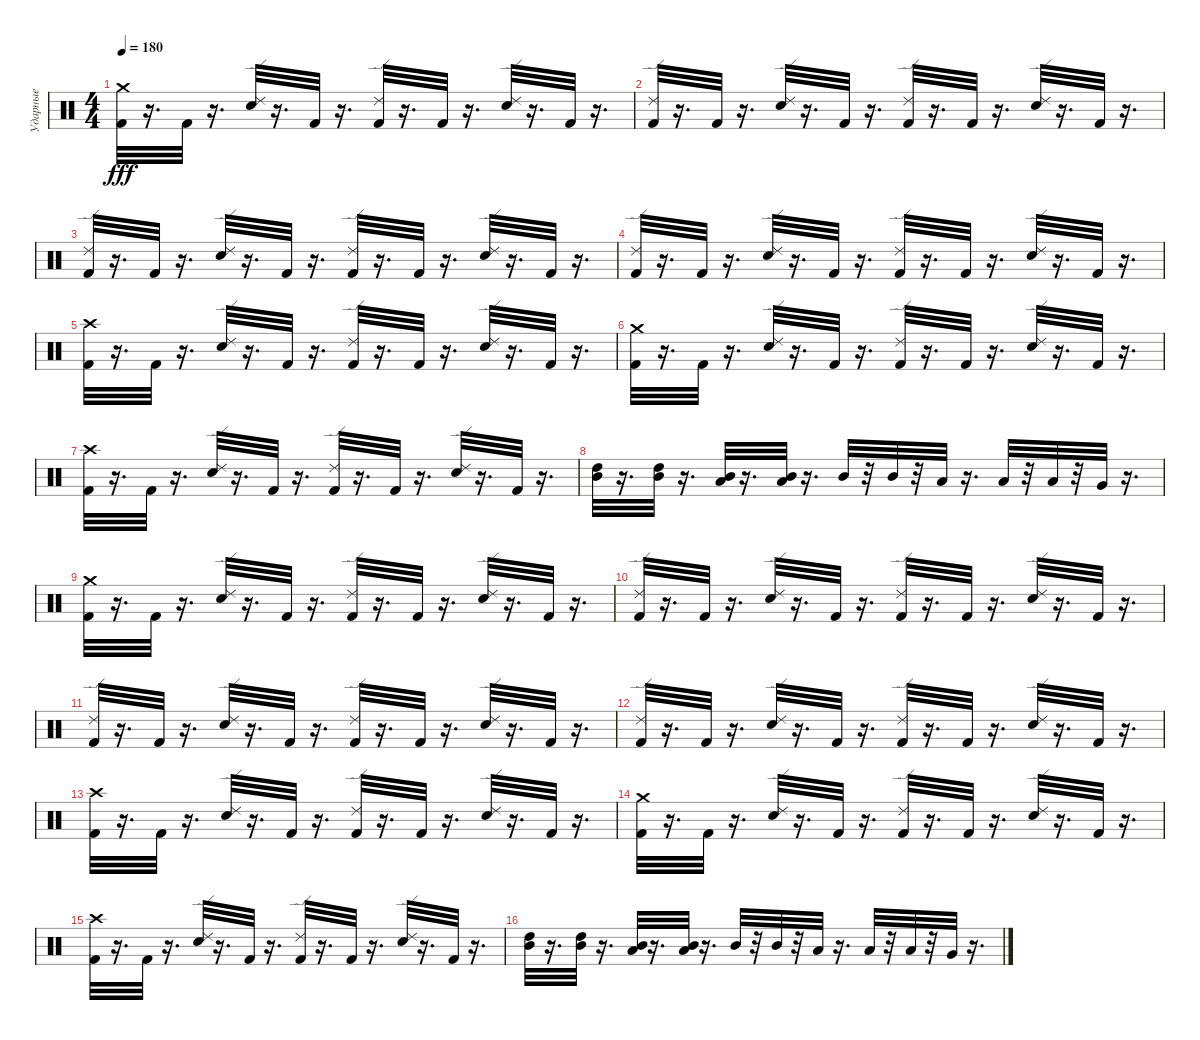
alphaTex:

\track ("Ударные" "Ударные") {instrument percussion}
\staff {score}
\articulation defaults
\ts (4 4)
\tempo 180
\clef neutral
\ks c
("Crash medium (hit)" "Kick (hit) 2").32{dy fff} r.16{d} "Kick (hit) 2".32 r.16{d} ("Ride (edge) 2" "Snare (hit) 2").32 r.16{d} "Kick (hit) 2".32 r.16{d} ("Ride (edge) 2" "Kick (hit) 2").32 r.16{d} "Kick (hit) 2".32 r.16{d} ("Ride (edge) 2" "Snare (hit) 2").32 r.16{d} "Kick (hit) 2".32 r.16{d} |
("Kick (hit) 2" "Ride (edge) 2").32 r.16{d} "Kick (hit) 2".32 r.16{d} ("Ride (edge) 2" "Snare (hit) 2").32 r.16{d} "Kick (hit) 2".32 r.16{d} ("Kick (hit) 2" "Ride (edge) 2").32 r.16{d} "Kick (hit) 2".32 r.16{d} ("Ride (edge) 2" "Snare (hit) 2").32 r.16{d} "Kick (hit) 2".32 r.16{d} |
("Ride (edge) 2" "Kick (hit) 2").32 r.16{d} "Kick (hit) 2".32 r.16{d} ("Snare (hit) 2" "Ride (edge) 2").32 r.16{d} "Kick (hit) 2".32 r.16{d} ("Kick (hit) 2" "Ride (edge) 2").32 r.16{d} "Kick (hit) 2".32 r.16{d} ("Snare (hit) 2" "Ride (edge) 2").32 r.16{d} "Kick (hit) 2".32 r.16{d} |
("Kick (hit) 2" "Ride (edge) 2").32 r.16{d} "Kick (hit) 2".32 r.16{d} ("Ride (edge) 2" "Snare (hit) 2").32 r.16{d} "Kick (hit) 2".32 r.16{d} ("Kick (hit) 2" "Ride (edge) 2").32 r.16{d} "Kick (hit) 2".32 r.16{d} ("Ride (edge) 2" "Snare (hit) 2").32 r.16{d} "Kick (hit) 2".32 r.16{d} |
("Kick (hit) 2" "Crash high (hit)").32 r.16{d} "Kick (hit) 2".32 r.16{d} ("Snare (hit) 2" "Ride (edge) 2").32 r.16{d} "Kick (hit) 2".32 r.16{d} ("Ride (edge) 2" "Kick (hit) 2").32 r.16{d} "Kick (hit) 2".32 r.16{d} ("Ride (edge) 2" "Snare (hit) 2").32 r.16{d} "Kick (hit) 2".32 r.16{d} |
("Crash medium (hit)" "Kick (hit) 2").32 r.16{d} "Kick (hit) 2".32 r.16{d} ("Ride (edge) 2" "Snare (hit) 2").32 r.16{d} "Kick (hit) 2".32 r.16{d} ("Kick (hit) 2" "Ride (edge) 2").32 r.16{d} "Kick (hit) 2".32 r.16{d} ("Snare (hit) 2" "Ride (edge) 2").32 r.16{d} "Kick (hit) 2".32 r.16{d} |
("Crash high (hit)" "Kick (hit) 2").32 r.16{d} "Kick (hit) 2".32 r.16{d} ("Ride (edge) 2" "Snare (hit) 2").32 r.16{d} "Kick (hit) 2".32 r.16{d} ("Ride (edge) 2" "Kick (hit) 2").32 r.16{d} "Kick (hit) 2".32 r.16{d} ("Snare (hit) 2" "Ride (edge) 2").32 r.16{d} "Kick (hit) 2".32 r.16{d} |
("Mid Tom (hit)" "High Tom (hit)").32 r.16{d} ("High Tom (hit)" "Mid Tom (hit)").32 r.16{d} ("Mid Tom (hit)" "Low Tom (hit)").32 r.16{d} ("Low Tom (hit)" "Mid Tom (hit)").32 r.16{d} "Mid Tom (hit)".32 r.32 "Mid Tom (hit)".32 r.32 "Low Tom (hit)".32 r.16{d} "Low Tom (hit)".32 r.32 "Low Tom (hit)".32 r.32 "Very Low Tom (hit)".32 r.16{d} |
("Kick (hit) 2" "Crash medium (hit)").32 r.16{d} "Kick (hit) 2".32 r.16{d} ("Snare (hit) 2" "Ride (edge) 2").32 r.16{d} "Kick (hit) 2".32 r.16{d} ("Ride (edge) 2" "Kick (hit) 2").32 r.16{d} "Kick (hit) 2".32 r.16{d} ("Snare (hit) 2" "Ride (edge) 2").32 r.16{d} "Kick (hit) 2".32 r.16{d} |
("Kick (hit) 2" "Ride (edge) 2").32 r.16{d} "Kick (hit) 2".32 r.16{d} ("Ride (edge) 2" "Snare (hit) 2").32 r.16{d} "Kick (hit) 2".32 r.16{d} ("Kick (hit) 2" "Ride (edge) 2").32 r.16{d} "Kick (hit) 2".32 r.16{d} ("Snare (hit) 2" "Ride (edge) 2").32 r.16{d} "Kick (hit) 2".32 r.16{d} |
("Kick (hit) 2" "Ride (edge) 2").32 r.16{d} "Kick (hit) 2".32 r.16{d} ("Ride (edge) 2" "Snare (hit) 2").32 r.16{d} "Kick (hit) 2".32 r.16{d} ("Ride (edge) 2" "Kick (hit) 2").32 r.16{d} "Kick (hit) 2".32 r.16{d} ("Ride (edge) 2" "Snare (hit) 2").32 r.16{d} "Kick (hit) 2".32 r.16{d} |
("Ride (edge) 2" "Kick (hit) 2").32 r.16{d} "Kick (hit) 2".32 r.16{d} ("Ride (edge) 2" "Snare (hit) 2").32 r.16{d} "Kick (hit) 2".32 r.16{d} ("Kick (hit) 2" "Ride (edge) 2").32 r.16{d} "Kick (hit) 2".32 r.16{d} ("Snare (hit) 2" "Ride (edge) 2").32 r.16{d} "Kick (hit) 2".32 r.16{d} |
("Kick (hit) 2" "Crash high (hit)").32 r.16{d} "Kick (hit) 2".32 r.16{d} ("Ride (edge) 2" "Snare (hit) 2").32 r.16{d} "Kick (hit) 2".32 r.16{d} ("Ride (edge) 2" "Kick (hit) 2").32 r.16{d} "Kick (hit) 2".32 r.16{d} ("Snare (hit) 2" "Ride (edge) 2").32 r.16{d} "Kick (hit) 2".32 r.16{d} |
("Crash medium (hit)" "Kick (hit) 2").32 r.16{d} "Kick (hit) 2".32 r.16{d} ("Ride (edge) 2" "Snare (hit) 2").32 r.16{d} "Kick (hit) 2".32 r.16{d} ("Kick (hit) 2" "Ride (edge) 2").32 r.16{d} "Kick (hit) 2".32 r.16{d} ("Ride (edge) 2" "Snare (hit) 2").32 r.16{d} "Kick (hit) 2".32 r.16{d} |
("Crash high (hit)" "Kick (hit) 2").32 r.16{d} "Kick (hit) 2".32 r.16{d} ("Ride (edge) 2" "Snare (hit) 2").32 r.16{d} "Kick (hit) 2".32 r.16{d} ("Kick (hit) 2" "Ride (edge) 2").32 r.16{d} "Kick (hit) 2".32 r.16{d} ("Ride (edge) 2" "Snare (hit) 2").32 r.16{d} "Kick (hit) 2".32 r.16{d} |
("High Tom (hit)" "Mid Tom (hit)").32 r.16{d} ("High Tom (hit)" "Mid Tom (hit)").32 r.16{d} ("Low Tom (hit)" "Mid Tom (hit)").32 r.16{d} ("Low Tom (hit)" "Mid Tom (hit)").32 r.16{d} "Mid Tom (hit)".32 r.32 "Mid Tom (hit)".32 r.32 "Low Tom (hit)".32 r.16{d} "Low Tom (hit)".32 r.32 "Low Tom (hit)".32 r.32 "Very Low Tom (hit)".32 r.16{d}
